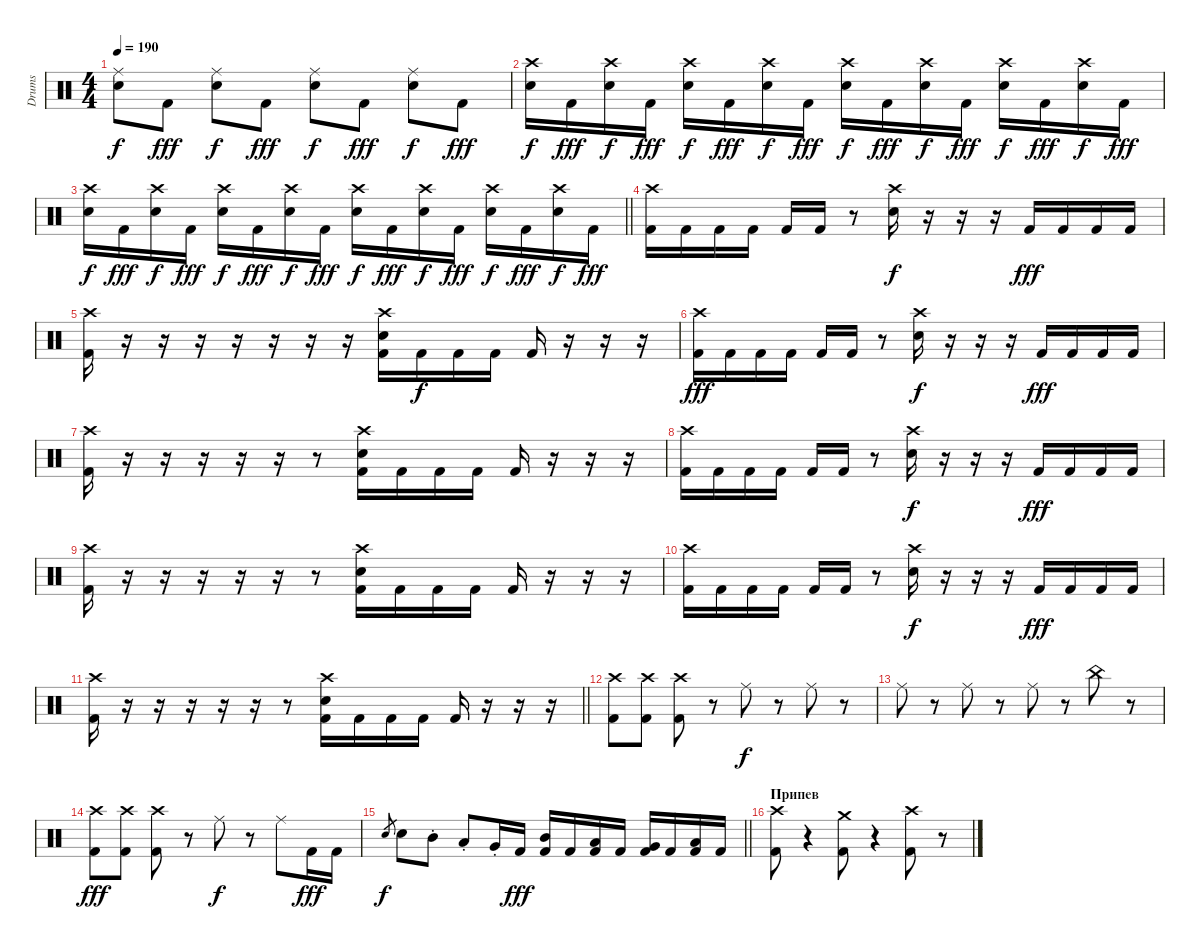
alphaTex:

\track ("Drums" "Drums") {instrument percussion}
\staff {score}
\articulation defaults
\ts (4 4)
\tempo 190
\clef neutral
\ks c
("Ride (middle)" "Electric Snare (hit)").8{dy f} "Kick (hit) 2".8{dy fff} ("Ride (middle)" "Electric Snare (hit)").8{dy f} "Kick (hit) 2".8{dy fff} ("Ride (middle)" "Electric Snare (hit)").8{dy f} "Kick (hit) 2".8{dy fff} ("Ride (middle)" "Electric Snare (hit)").8{dy f} "Kick (hit) 2".8{dy fff} |
("Crash high (hit)" "Electric Snare (hit)").16{dy f} "Kick (hit) 2".16{dy fff} ("Crash high (hit)" "Electric Snare (hit)").16{dy f} "Kick (hit) 2".16{dy fff} ("Crash high (hit)" "Electric Snare (hit)").16{dy f} "Kick (hit) 2".16{dy fff} ("Crash high (hit)" "Electric Snare (hit)").16{dy f} "Kick (hit) 2".16{dy fff} ("Crash high (hit)" "Electric Snare (hit)").16{dy f} "Kick (hit) 2".16{dy fff} ("Crash high (hit)" "Electric Snare (hit)").16{dy f} "Kick (hit) 2".16{dy fff} ("Crash high (hit)" "Electric Snare (hit)").16{dy f} "Kick (hit) 2".16{dy fff} ("Crash high (hit)" "Electric Snare (hit)").16{dy f} "Kick (hit) 2".16{dy fff} |
\barLineRight lightlight
("Crash high (hit)" "Electric Snare (hit)").16{dy f} "Kick (hit) 2".16{dy fff} ("Crash high (hit)" "Electric Snare (hit)").16{dy f} "Kick (hit) 2".16{dy fff} ("Crash high (hit)" "Electric Snare (hit)").16{dy f} "Kick (hit) 2".16{dy fff} ("Crash high (hit)" "Electric Snare (hit)").16{dy f} "Kick (hit) 2".16{dy fff} ("Crash high (hit)" "Electric Snare (hit)").16{dy f} "Kick (hit) 2".16{dy fff} ("Crash high (hit)" "Electric Snare (hit)").16{dy f} "Kick (hit) 2".16{dy fff} ("Crash high (hit)" "Electric Snare (hit)").16{dy f} "Kick (hit) 2".16{dy fff} ("Crash high (hit)" "Electric Snare (hit)").16{dy f} "Kick (hit) 2".16{dy fff} |
\section ("" "")
("Crash high (hit)" "Kick (hit) 2").16 "Kick (hit) 2".16 "Kick (hit) 2".16 "Kick (hit) 2".16 "Kick (hit) 2".16 "Kick (hit) 2".16 r.8 ("Crash high (hit)" "Electric Snare (hit)").16{dy f} r.16 r.16 r.16 "Kick (hit) 2".16{dy fff} "Kick (hit) 2".16 "Kick (hit) 2".16 "Kick (hit) 2".16 |
("Crash high (hit)" "Kick (hit) 2").16 r.16 r.16 r.16 r.16 r.16 r.16 r.16 ("Crash high (hit)" "Electric Snare (hit)" "Kick (hit) 2").16 "Kick (hit) 2".16{dy f} "Kick (hit) 2".16 "Kick (hit) 2".16 "Kick (hit) 2".16 r.16 r.16 r.16 |
("Crash high (hit)" "Kick (hit) 2").16{dy fff} "Kick (hit) 2".16 "Kick (hit) 2".16 "Kick (hit) 2".16 "Kick (hit) 2".16 "Kick (hit) 2".16 r.8 ("Crash high (hit)" "Electric Snare (hit)").16{dy f} r.16 r.16 r.16 "Kick (hit) 2".16{dy fff} "Kick (hit) 2".16 "Kick (hit) 2".16 "Kick (hit) 2".16 |
("Crash high (hit)" "Kick (hit) 2").16 r.16 r.16 r.16 r.16 r.16 r.8 ("Crash high (hit)" "Electric Snare (hit)" "Kick (hit) 2").16 "Kick (hit) 2".16 "Kick (hit) 2".16 "Kick (hit) 2".16 "Kick (hit) 2".16 r.16 r.16 r.16 |
("Crash high (hit)" "Kick (hit) 2").16 "Kick (hit) 2".16 "Kick (hit) 2".16 "Kick (hit) 2".16 "Kick (hit) 2".16 "Kick (hit) 2".16 r.8 ("Crash high (hit)" "Electric Snare (hit)").16{dy f} r.16 r.16 r.16 "Kick (hit) 2".16{dy fff} "Kick (hit) 2".16 "Kick (hit) 2".16 "Kick (hit) 2".16 |
("Crash high (hit)" "Kick (hit) 2").16 r.16 r.16 r.16 r.16 r.16 r.8 ("Crash high (hit)" "Electric Snare (hit)" "Kick (hit) 2").16 "Kick (hit) 2".16 "Kick (hit) 2".16 "Kick (hit) 2".16 "Kick (hit) 2".16 r.16 r.16 r.16 |
("Crash high (hit)" "Kick (hit) 2").16 "Kick (hit) 2".16 "Kick (hit) 2".16 "Kick (hit) 2".16 "Kick (hit) 2".16 "Kick (hit) 2".16 r.8 ("Crash high (hit)" "Electric Snare (hit)").16{dy f} r.16 r.16 r.16 "Kick (hit) 2".16{dy fff} "Kick (hit) 2".16 "Kick (hit) 2".16 "Kick (hit) 2".16 |
\barLineRight lightlight
("Crash high (hit)" "Kick (hit) 2").16 r.16 r.16 r.16 r.16 r.16 r.8 ("Crash high (hit)" "Electric Snare (hit)" "Kick (hit) 2").16 "Kick (hit) 2".16 "Kick (hit) 2".16 "Kick (hit) 2".16 "Kick (hit) 2".16 r.16 r.16 r.16 |
\section ("" "")
("Crash high (hit)" "Kick (hit) 2").8 ("Crash high (hit)" "Kick (hit) 2").8 ("Crash high (hit)" "Kick (hit) 2").8 r.8 "Ride (middle)".8{dy f} r.8 "Ride (middle)".8 r.8 |
"Ride (middle)".8 r.8 "Ride (middle)".8 r.8 "Ride (middle)".8 r.8 "China (hit)".8 r.8 |
("Crash high (hit)" "Kick (hit) 2").8{dy fff} ("Crash high (hit)" "Kick (hit) 2").8 ("Crash high (hit)" "Kick (hit) 2").8 r.8 "Ride (middle)".8{dy f} r.8 "Ride (middle)".8 "Kick (hit) 2".16{dy fff} "Kick (hit) 2".16 |
\barLineRight lightlight "Electric Snare (hit)".8{gr dy f} "Electric Snare (hit)".8 "Mid Tom (hit)"{st}.8 "Low Tom (hit)"{st}.8 "Very Low Tom (hit)"{st}.16 "Kick (hit) 2".16{dy fff}
("Mid Tom (hit)" "Kick (hit) 2").16 "Kick (hit) 2".16 ("Low Tom (hit)" "Kick (hit) 2").16 "Kick (hit) 2".16 ("Very Low Tom (hit)" "Kick (hit) 2").16 "Kick (hit) 2".16 ("Low Floor Tom (hit)" "Kick (hit) 2").16 "Kick (hit) 2".16 |
\section ("" "Припев")
("Crash high (hit)" "Kick (hit) 2").8 r.4 ("Crash medium (hit)" "Kick (hit) 2").8 r.4 ("Crash high (hit)" "Kick (hit) 2").8 r.8
